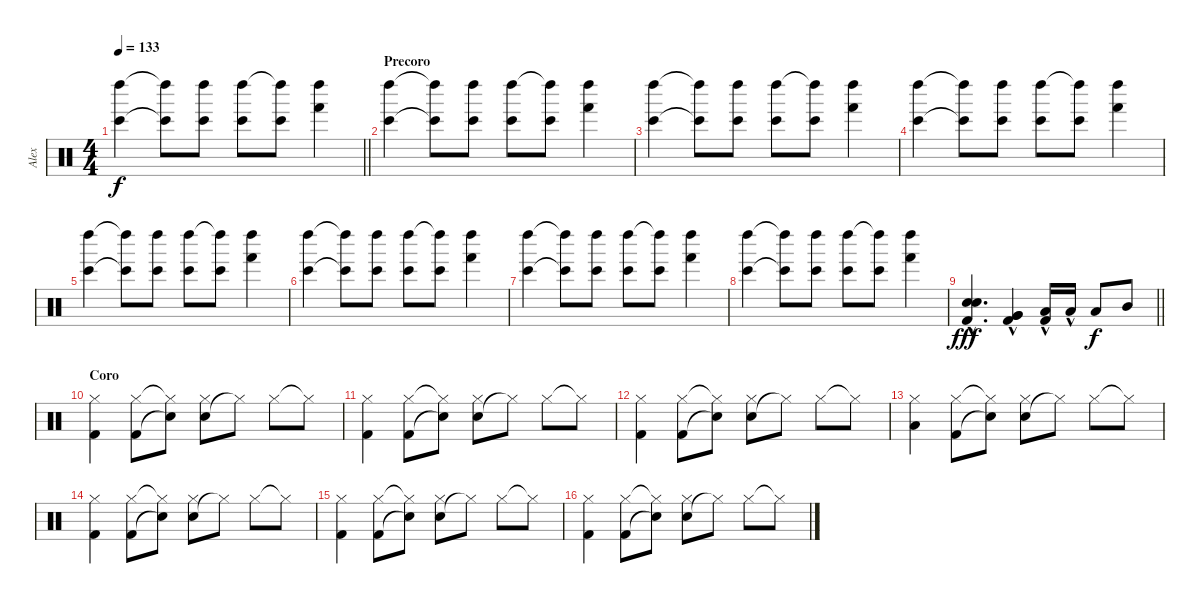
\track ("Alex" "Alex") {instrument percussion}
\staff {score}
\articulation defaults
\ts (4 4)
\tempo 133
\clef neutral
\barLineRight lightlight
\ks c
("Bongo High (hit)" "Left Maraca (hit)").4{dy f} ("Bongo High (hit)"{t} "Left Maraca (hit)"{t}).8 ("Bongo High (hit)" "Left Maraca (hit)").8 ("Bongo High (hit)" "Left Maraca (hit)").8 ("Bongo High (hit)" "Left Maraca (hit)"{t}).8 ("Hand (hit)" "Left Maraca (hit)").4 |
\section ("" "Precoro")
("Bongo High (hit)" "Left Maraca (hit)").4 ("Bongo High (hit)"{t} "Left Maraca (hit)"{t}).8 ("Bongo High (hit)" "Left Maraca (hit)").8 ("Bongo High (hit)" "Left Maraca (hit)").8 ("Bongo High (hit)" "Left Maraca (hit)"{t}).8 ("Hand (hit)" "Left Maraca (hit)").4 |
("Bongo High (hit)" "Left Maraca (hit)").4 ("Bongo High (hit)"{t} "Left Maraca (hit)"{t}).8 ("Bongo High (hit)" "Left Maraca (hit)").8 ("Bongo High (hit)" "Left Maraca (hit)").8 ("Bongo High (hit)" "Left Maraca (hit)"{t}).8 ("Hand (hit)" "Left Maraca (hit)").4 |
("Bongo High (hit)" "Left Maraca (hit)").4 ("Bongo High (hit)"{t} "Left Maraca (hit)"{t}).8 ("Bongo High (hit)" "Left Maraca (hit)").8 ("Bongo High (hit)" "Left Maraca (hit)").8 ("Bongo High (hit)" "Left Maraca (hit)"{t}).8 ("Hand (hit)" "Left Maraca (hit)").4 |
("Bongo High (hit)" "Left Maraca (hit)").4 ("Bongo High (hit)"{t} "Left Maraca (hit)"{t}).8 ("Bongo High (hit)" "Left Maraca (hit)").8 ("Bongo High (hit)" "Left Maraca (hit)").8 ("Bongo High (hit)" "Left Maraca (hit)"{t}).8 ("Hand (hit)" "Left Maraca (hit)").4 |
("Bongo High (hit)" "Left Maraca (hit)").4 ("Bongo High (hit)"{t} "Left Maraca (hit)"{t}).8 ("Bongo High (hit)" "Left Maraca (hit)").8 ("Bongo High (hit)" "Left Maraca (hit)").8 ("Bongo High (hit)" "Left Maraca (hit)"{t}).8 ("Hand (hit)" "Left Maraca (hit)").4 |
("Bongo High (hit)" "Left Maraca (hit)").4 ("Bongo High (hit)"{t} "Left Maraca (hit)"{t}).8 ("Bongo High (hit)" "Left Maraca (hit)").8 ("Bongo High (hit)" "Left Maraca (hit)").8 ("Bongo High (hit)" "Left Maraca (hit)"{t}).8 ("Hand (hit)" "Left Maraca (hit)").4 |
("Bongo High (hit)" "Left Maraca (hit)").4 ("Bongo High (hit)"{t} "Left Maraca (hit)"{t}).8 ("Bongo High (hit)" "Left Maraca (hit)").8 ("Bongo High (hit)" "Left Maraca (hit)").8 ("Bongo High (hit)" "Left Maraca (hit)"{t}).8 ("Hand (hit)" "Left Maraca (hit)").4 |
\barLineRight lightlight
("Electric Snare (hit)"{hac} "Electric Snare (hit)"{hac} "Kick (hit) 2").4{d dy fff} ("Very Low Tom (hit)"{hac} "Very Low Tom (hit)" "Kick (hit) 2").4 ("Low Tom (hit)"{hac} "Kick (hit) 2").16 "Low Tom (hit)"{hac}.16 "Low Tom (hit)".8{dy f} "Mid Tom (hit)".8 |
\section ("" "Coro")
("Kick (hit) 2" "Hi-Hat (closed)").4 ("Kick (hit) 2" "Hi-Hat (closed)").8 ("Electric Snare (hit)"{t} "Hi-Hat (closed)"{t}).8 ("Electric Snare (hit)" "Hi-Hat (closed)").8 "Hi-Hat (closed)"{t}.8 "Hi-Hat (closed)".8 "Hi-Hat (closed)"{t}.8 |
("Kick (hit) 2" "Hi-Hat (closed)").4 ("Kick (hit) 2" "Hi-Hat (closed)").8 ("Electric Snare (hit)"{t} "Hi-Hat (closed)"{t}).8 ("Electric Snare (hit)" "Hi-Hat (closed)").8 "Hi-Hat (closed)"{t}.8 "Hi-Hat (closed)".8 "Hi-Hat (closed)"{t}.8 |
("Kick (hit) 2" "Hi-Hat (closed)").4 ("Kick (hit) 2" "Hi-Hat (closed)").8 ("Electric Snare (hit)"{t} "Hi-Hat (closed)"{t}).8 ("Electric Snare (hit)" "Hi-Hat (closed)").8 "Hi-Hat (closed)"{t}.8 "Hi-Hat (closed)".8 "Hi-Hat (closed)"{t}.8 |
("Low Tom (hit)" "Hi-Hat (closed)").4 ("Kick (hit) 2" "Hi-Hat (closed)").8 ("Electric Snare (hit)"{t} "Hi-Hat (closed)"{t}).8 ("Electric Snare (hit)" "Hi-Hat (closed)").8 "Hi-Hat (closed)"{t}.8 "Hi-Hat (closed)".8 "Hi-Hat (closed)"{t}.8 |
("Kick (hit) 2" "Hi-Hat (closed)").4 ("Kick (hit) 2" "Hi-Hat (closed)").8 ("Electric Snare (hit)"{t} "Hi-Hat (closed)"{t}).8 ("Electric Snare (hit)" "Hi-Hat (closed)").8 "Hi-Hat (closed)"{t}.8 "Hi-Hat (closed)".8 "Hi-Hat (closed)"{t}.8 |
("Kick (hit) 2" "Hi-Hat (closed)").4 ("Kick (hit) 2" "Hi-Hat (closed)").8 ("Electric Snare (hit)"{t} "Hi-Hat (closed)"{t}).8 ("Electric Snare (hit)" "Hi-Hat (closed)").8 "Hi-Hat (closed)"{t}.8 "Hi-Hat (closed)".8 "Hi-Hat (closed)"{t}.8 |
("Kick (hit) 2" "Hi-Hat (closed)").4 ("Kick (hit) 2" "Hi-Hat (closed)").8 ("Electric Snare (hit)"{t} "Hi-Hat (closed)"{t}).8 ("Electric Snare (hit)" "Hi-Hat (closed)").8 "Hi-Hat (closed)"{t}.8 "Hi-Hat (closed)".8 "Hi-Hat (closed)"{t}.8
